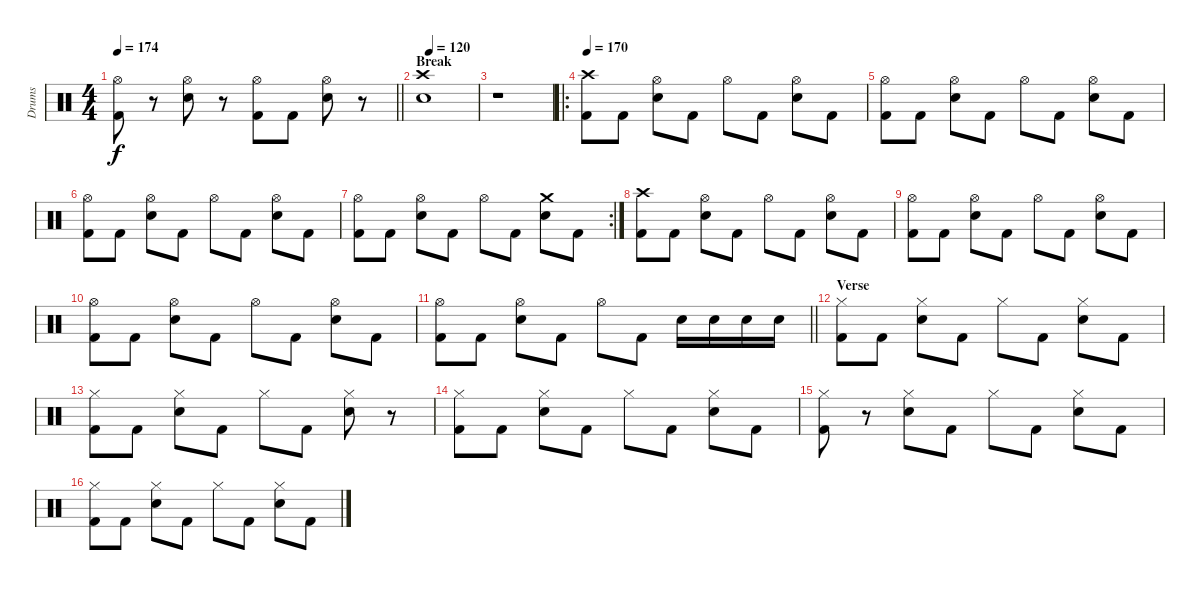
\track ("Drums" "Drums") {instrument percussion}
\staff {score}
\articulation defaults
\ts (4 4)
\tempo 174
\clef neutral
\barLineRight lightlight
\ks c
("Hi-Hat (open)" "Kick (hit) 2").8{dy f} r.8 ("Hi-Hat (open)" "Electric Snare (hit)").8 r.8 ("Hi-Hat (open)" "Kick (hit) 2").8 "Kick (hit) 2".8 ("Hi-Hat (open)" "Electric Snare (hit)").8 r.8 |
\section ("" "Break")
\tempo (120 0.125)
("Crash high (hit)" "Electric Snare (hit)").1 |
r.1 |
\ro
\tempo 170
("Crash high (hit)" "Kick (hit) 2").8 "Kick (hit) 2".8 ("Hi-Hat (open)" "Electric Snare (hit)").8 "Kick (hit) 2".8 "Hi-Hat (open)".8 "Kick (hit) 2".8 ("Hi-Hat (open)" "Electric Snare (hit)").8 "Kick (hit) 2".8 |
("Hi-Hat (open)" "Kick (hit) 2").8 "Kick (hit) 2".8 ("Hi-Hat (open)" "Electric Snare (hit)").8 "Kick (hit) 2".8 "Hi-Hat (open)".8 "Kick (hit) 2".8 ("Hi-Hat (open)" "Electric Snare (hit)").8 "Kick (hit) 2".8 |
("Hi-Hat (open)" "Kick (hit) 2").8 "Kick (hit) 2".8 ("Hi-Hat (open)" "Electric Snare (hit)").8 "Kick (hit) 2".8 "Hi-Hat (open)".8 "Kick (hit) 2".8 ("Hi-Hat (open)" "Electric Snare (hit)").8 "Kick (hit) 2".8 |
\rc 2
("Hi-Hat (open)" "Kick (hit) 2").8 "Kick (hit) 2".8 ("Hi-Hat (open)" "Electric Snare (hit)").8 "Kick (hit) 2".8 "Hi-Hat (open)".8 "Kick (hit) 2".8 ("Crash medium (hit)" "Electric Snare (hit)").8 "Kick (hit) 2".8 |
("Crash high (hit)" "Kick (hit) 2").8 "Kick (hit) 2".8 ("Hi-Hat (open)" "Electric Snare (hit)").8 "Kick (hit) 2".8 "Hi-Hat (open)".8 "Kick (hit) 2".8 ("Hi-Hat (open)" "Electric Snare (hit)").8 "Kick (hit) 2".8 |
("Hi-Hat (open)" "Kick (hit) 2").8 "Kick (hit) 2".8 ("Hi-Hat (open)" "Electric Snare (hit)").8 "Kick (hit) 2".8 "Hi-Hat (open)".8 "Kick (hit) 2".8 ("Hi-Hat (open)" "Electric Snare (hit)").8 "Kick (hit) 2".8 |
("Hi-Hat (open)" "Kick (hit) 2").8 "Kick (hit) 2".8 ("Hi-Hat (open)" "Electric Snare (hit)").8 "Kick (hit) 2".8 "Hi-Hat (open)".8 "Kick (hit) 2".8 ("Hi-Hat (open)" "Electric Snare (hit)").8 "Kick (hit) 2".8 |
\barLineRight lightlight
("Hi-Hat (open)" "Kick (hit) 2").8 "Kick (hit) 2".8 ("Hi-Hat (open)" "Electric Snare (hit)").8 "Kick (hit) 2".8 "Hi-Hat (open)".8 "Kick (hit) 2".8 "Electric Snare (hit)".16 "Electric Snare (hit)".16 "Electric Snare (hit)".16 "Electric Snare (hit)".16 |
\section ("" "Verse")
("Hi-Hat (closed)" "Kick (hit) 2").8 "Kick (hit) 2".8 ("Hi-Hat (closed)" "Electric Snare (hit)").8 "Kick (hit) 2".8 "Hi-Hat (closed)".8 "Kick (hit) 2".8 ("Hi-Hat (closed)" "Electric Snare (hit)").8 "Kick (hit) 2".8 |
("Hi-Hat (closed)" "Kick (hit) 2").8 "Kick (hit) 2".8 ("Hi-Hat (closed)" "Electric Snare (hit)").8 "Kick (hit) 2".8 "Hi-Hat (closed)".8 "Kick (hit) 2".8 ("Hi-Hat (closed)" "Electric Snare (hit)").8 r.8 |
("Hi-Hat (closed)" "Kick (hit) 2").8 "Kick (hit) 2".8 ("Hi-Hat (closed)" "Electric Snare (hit)").8 "Kick (hit) 2".8 "Hi-Hat (closed)".8 "Kick (hit) 2".8 ("Hi-Hat (closed)" "Electric Snare (hit)").8 "Kick (hit) 2".8 |
("Hi-Hat (closed)" "Kick (hit) 2").8 r.8 ("Hi-Hat (closed)" "Electric Snare (hit)").8 "Kick (hit) 2".8 "Hi-Hat (closed)".8 "Kick (hit) 2".8 ("Hi-Hat (closed)" "Electric Snare (hit)").8 "Kick (hit) 2".8 |
("Hi-Hat (closed)" "Kick (hit) 2").8 "Kick (hit) 2".8 ("Hi-Hat (closed)" "Electric Snare (hit)").8 "Kick (hit) 2".8 "Hi-Hat (closed)".8 "Kick (hit) 2".8 ("Hi-Hat (closed)" "Electric Snare (hit)").8 "Kick (hit) 2".8
